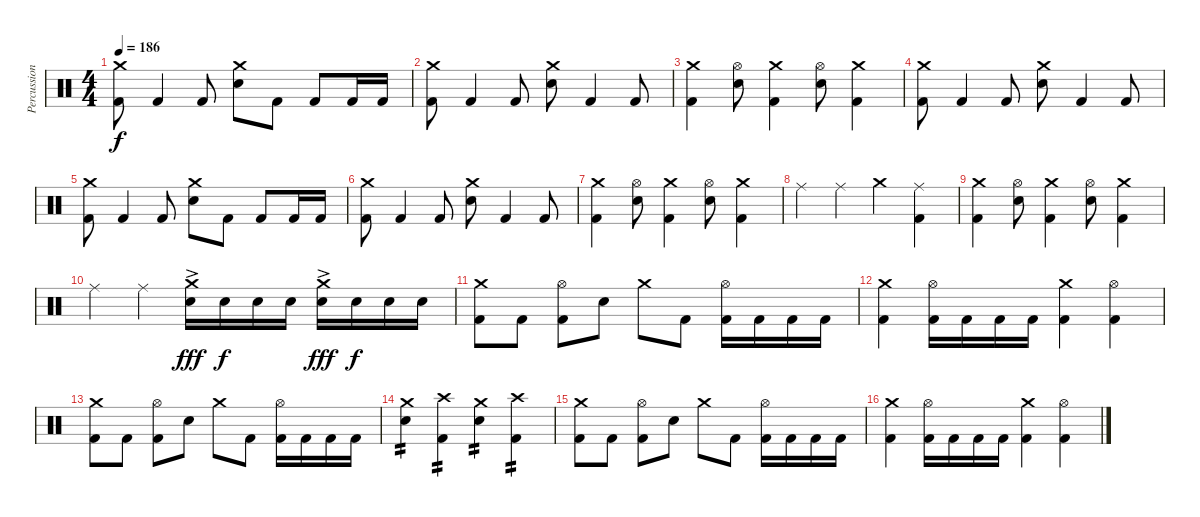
\track ("Percussion" "Percussion") {instrument percussion}
\staff {score}
\articulation defaults
\ts (4 4)
\tempo 186
\clef neutral
\ks c
("Crash medium (hit)" "Kick (hit) 2").8{dy f} "Kick (hit) 2".4 "Kick (hit) 2".8 ("Crash medium (hit)" "Snare (hit) 2").8 "Kick (hit) 2".8 "Kick (hit) 2".8 "Kick (hit) 2".16 "Kick (hit) 2".16 |
("Crash medium (hit)" "Kick (hit) 2").8 "Kick (hit) 2".4 "Kick (hit) 2".8 ("Crash medium (hit)" "Snare (hit) 2").8 "Kick (hit) 2".4 "Kick (hit) 2".8 |
("Crash medium (hit)" "Kick (hit) 2").4 ("Hi-Hat (open)" "Snare (hit) 2").8 ("Crash medium (hit)" "Kick (hit) 2").4 ("Hi-Hat (open)" "Snare (hit) 2").8 ("Crash medium (hit)" "Kick (hit) 2").4 |
("Crash medium (hit)" "Kick (hit) 2").8 "Kick (hit) 2".4 "Kick (hit) 2".8 ("Crash medium (hit)" "Snare (hit) 2").8 "Kick (hit) 2".4 "Kick (hit) 2".8 |
("Crash medium (hit)" "Kick (hit) 2").8 "Kick (hit) 2".4 "Kick (hit) 2".8 ("Crash medium (hit)" "Snare (hit) 2").8 "Kick (hit) 2".8 "Kick (hit) 2".8 "Kick (hit) 2".16 "Kick (hit) 2".16 |
("Crash medium (hit)" "Kick (hit) 2").8 "Kick (hit) 2".4 "Kick (hit) 2".8 ("Crash medium (hit)" "Snare (hit) 2").8 "Kick (hit) 2".4 "Kick (hit) 2".8 |
("Crash medium (hit)" "Kick (hit) 2").4 ("Hi-Hat (open)" "Snare (hit) 2").8 ("Crash medium (hit)" "Kick (hit) 2").4 ("Hi-Hat (open)" "Snare (hit) 2").8 ("Crash medium (hit)" "Kick (hit) 2").4 |
"Ride (middle)".4 "Ride (middle)".4 "Crash medium (hit)".4 ("Ride (middle)" "Kick (hit) 2").4 |
("Crash medium (hit)" "Kick (hit) 2").4 ("Hi-Hat (open)" "Snare (hit) 2").8 ("Crash medium (hit)" "Kick (hit) 2").4 ("Hi-Hat (open)" "Snare (hit) 2").8 ("Crash medium (hit)" "Kick (hit) 2").4 |
"Ride (middle)".4 "Ride (middle)".4 ("Crash medium (hit)" "Snare (hit) 2"{ac}).16{dy fff} "Snare (hit) 2".16{dy f} "Snare (hit) 2".16 "Snare (hit) 2".16 ("Crash medium (hit)" "Snare (hit) 2"{ac}).16{dy fff} "Snare (hit) 2".16{dy f} "Snare (hit) 2".16 "Snare (hit) 2".16 |
("Crash medium (hit)" "Kick (hit) 2").8 "Kick (hit) 2".8 ("Hi-Hat (open)" "Kick (hit) 2").8 "Electric Snare (hit)".8 "Crash medium (hit)".8 "Kick (hit) 2".8 ("Hi-Hat (open)" "Kick (hit) 2").16 "Kick (hit) 2".16 "Kick (hit) 2".16 "Kick (hit) 2".16 |
("Crash medium (hit)" "Kick (hit) 2").4 ("Hi-Hat (open)" "Kick (hit) 2").16 "Kick (hit) 2".16 "Kick (hit) 2".16 "Kick (hit) 2".16 ("Crash medium (hit)" "Kick (hit) 2").4 ("Hi-Hat (open)" "Kick (hit) 2").4 |
("Crash medium (hit)" "Kick (hit) 2").8 "Kick (hit) 2".8 ("Hi-Hat (open)" "Kick (hit) 2").8 "Snare (hit) 2".8 "Crash medium (hit)".8 "Kick (hit) 2".8 ("Hi-Hat (open)" "Kick (hit) 2").16 "Kick (hit) 2".16 "Kick (hit) 2".16 "Kick (hit) 2".16 |
("Crash medium (hit)" "Snare (hit) 2").4{tp 2} ("Crash high (hit)" "Kick (hit) 2").4{tp 2} ("Crash medium (hit)" "Snare (hit) 2").4{tp 2} ("Crash high (hit)" "Kick (hit) 2").4{tp 2} |
("Crash medium (hit)" "Kick (hit) 2").8 "Kick (hit) 2".8 ("Hi-Hat (open)" "Kick (hit) 2").8 "Snare (hit) 2".8 "Crash medium (hit)".8 "Kick (hit) 2".8 ("Hi-Hat (open)" "Kick (hit) 2").16 "Kick (hit) 2".16 "Kick (hit) 2".16 "Kick (hit) 2".16 |
("Crash medium (hit)" "Kick (hit) 2").4 ("Hi-Hat (open)" "Kick (hit) 2").16 "Kick (hit) 2".16 "Kick (hit) 2".16 "Kick (hit) 2".16 ("Crash medium (hit)" "Kick (hit) 2").4 ("Hi-Hat (open)" "Kick (hit) 2").4
